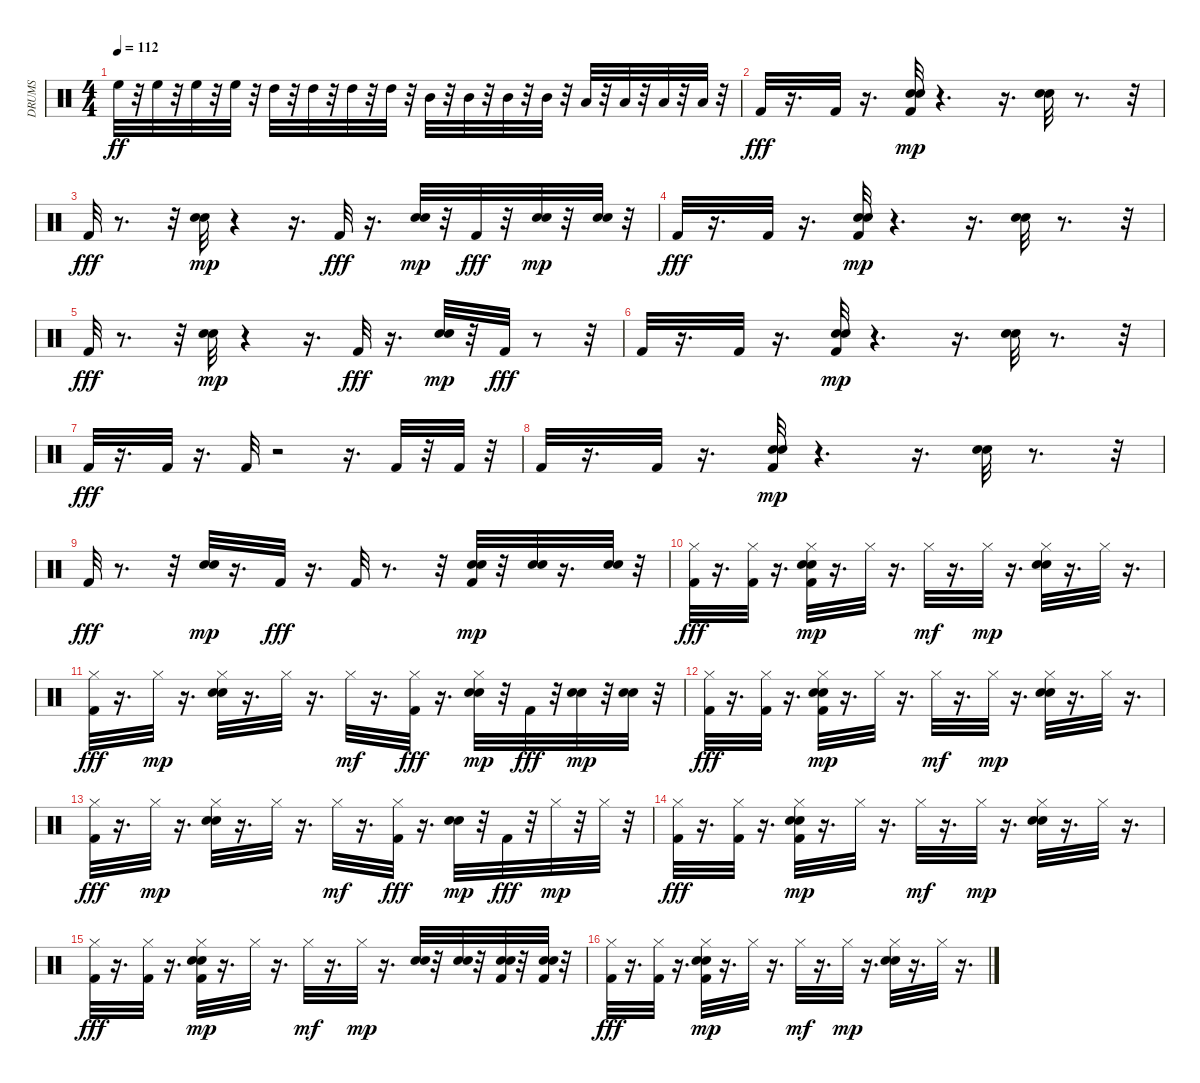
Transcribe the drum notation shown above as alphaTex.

\track ("DRUMS" "DRUMS") {instrument percussion}
\staff {score}
\articulation defaults
\ts (4 4)
\tempo 112
\clef neutral
\ks c "High Floor Tom (hit)".32{dy ff}
r.32 "High Floor Tom (hit)".32 r.32 "High Floor Tom (hit)".32 r.32 "High Floor Tom (hit)".32 r.32 "High Tom (hit)".32 r.32 "High Tom (hit)".32 r.32 "High Tom (hit)".32 r.32 "High Tom (hit)".32 r.32 "Mid Tom (hit)".32 r.32 "Mid Tom (hit)".32 r.32 "Mid Tom (hit)".32 r.32 "Mid Tom (hit)".32 r.32 "Low Tom (hit)".32 r.32 "Low Tom (hit)".32 r.32 "Low Tom (hit)".32 r.32 "Low Tom (hit)".32 r.32 |
"Kick (hit) 2".32{dy fff} r.16{d} "Kick (hit) 2".32 r.16{d} ("Hand Clap (hit)" "Kick (hit) 2" "Electric Snare (hit)").32{dy mp} r.4{d} r.16{d} ("Hand Clap (hit)" "Electric Snare (hit)").32 r.8{d} r.32 |
"Kick (hit) 2".32{dy fff} r.8{d} r.32 ("Hand Clap (hit)" "Electric Snare (hit)").32{dy mp} r.4 r.16{d} "Kick (hit) 2".32{dy fff} r.16{d} ("Hand Clap (hit)" "Electric Snare (hit)").32{dy mp} r.32 "Kick (hit) 2".32{dy fff} r.32 ("Hand Clap (hit)" "Electric Snare (hit)").32{dy mp} r.32 ("Hand Clap (hit)" "Electric Snare (hit)").32 r.32 |
"Kick (hit) 2".32{dy fff} r.16{d} "Kick (hit) 2".32 r.16{d} ("Hand Clap (hit)" "Kick (hit) 2" "Electric Snare (hit)").32{dy mp} r.4{d} r.16{d} ("Hand Clap (hit)" "Electric Snare (hit)").32 r.8{d} r.32 |
"Kick (hit) 2".32{dy fff} r.8{d} r.32 ("Hand Clap (hit)" "Electric Snare (hit)").32{dy mp} r.4 r.16{d} "Kick (hit) 2".32{dy fff} r.16{d} ("Hand Clap (hit)" "Electric Snare (hit)").32{dy mp} r.32 "Kick (hit) 2".32{dy fff} r.8 r.32 |
"Kick (hit) 2".32 r.16{d} "Kick (hit) 2".32 r.16{d} ("Hand Clap (hit)" "Kick (hit) 2" "Electric Snare (hit)").32{dy mp} r.4{d} r.16{d} ("Hand Clap (hit)" "Electric Snare (hit)").32 r.8{d} r.32 |
"Kick (hit) 2".32{dy fff} r.16{d} "Kick (hit) 2".32 r.16{d} "Kick (hit) 2".32 r.2 r.16{d} "Kick (hit) 2".32 r.32 "Kick (hit) 2".32 r.32 |
"Kick (hit) 2".32 r.16{d} "Kick (hit) 2".32 r.16{d} ("Hand Clap (hit)" "Kick (hit) 2" "Electric Snare (hit)").32{dy mp} r.4{d} r.16{d} ("Hand Clap (hit)" "Electric Snare (hit)").32 r.8{d} r.32 |
"Kick (hit) 2".32{dy fff} r.8{d} r.32 ("Hand Clap (hit)" "Electric Snare (hit)").32{dy mp} r.16{d} "Kick (hit) 2".32{dy fff} r.16{d} "Kick (hit) 2".32 r.8{d} r.32 ("Hand Clap (hit)" "Kick (hit) 2" "Electric Snare (hit)").32{dy mp} r.32 ("Hand Clap (hit)" "Electric Snare (hit)").32 r.16{d} ("Hand Clap (hit)" "Electric Snare (hit)").32 r.32 |
("Hi-Hat (closed)" "Kick (hit) 2").32{dy fff} r.16{d} ("Hi-Hat (closed)" "Kick (hit) 2").32 r.16{d} ("Hand Clap (hit)" "Hi-Hat (closed)" "Kick (hit) 2" "Electric Snare (hit)").32{dy mp} r.16{d} "Hi-Hat (closed)".32 r.16{d} "Hi-Hat (closed)".32{dy mf} r.16{d} "Hi-Hat (closed)".32{dy mp} r.16{d} ("Hand Clap (hit)" "Hi-Hat (closed)" "Electric Snare (hit)").32 r.16{d} "Hi-Hat (closed)".32 r.16{d} |
("Hi-Hat (closed)" "Kick (hit) 2").32{dy fff} r.16{d} "Hi-Hat (closed)".32{dy mp} r.16{d} ("Hand Clap (hit)" "Hi-Hat (closed)" "Electric Snare (hit)").32 r.16{d} "Hi-Hat (closed)".32 r.16{d} "Hi-Hat (closed)".32{dy mf} r.16{d} ("Hi-Hat (closed)" "Kick (hit) 2").32{dy fff} r.16{d} ("Hand Clap (hit)" "Hi-Hat (closed)" "Electric Snare (hit)").32{dy mp} r.32 "Kick (hit) 2".32{dy fff} r.32 ("Hand Clap (hit)" "Electric Snare (hit)").32{dy mp} r.32 ("Hand Clap (hit)" "Electric Snare (hit)").32 r.32 |
("Hi-Hat (closed)" "Kick (hit) 2").32{dy fff} r.16{d} ("Hi-Hat (closed)" "Kick (hit) 2").32 r.16{d} ("Hand Clap (hit)" "Hi-Hat (closed)" "Kick (hit) 2" "Electric Snare (hit)").32{dy mp} r.16{d} "Hi-Hat (closed)".32 r.16{d} "Hi-Hat (closed)".32{dy mf} r.16{d} "Hi-Hat (closed)".32{dy mp} r.16{d} ("Hand Clap (hit)" "Hi-Hat (closed)" "Electric Snare (hit)").32 r.16{d} "Hi-Hat (closed)".32 r.16{d} |
("Hi-Hat (closed)" "Kick (hit) 2").32{dy fff} r.16{d} "Hi-Hat (closed)".32{dy mp} r.16{d} ("Hand Clap (hit)" "Hi-Hat (closed)" "Electric Snare (hit)").32 r.16{d} "Hi-Hat (closed)".32 r.16{d} "Hi-Hat (closed)".32{dy mf} r.16{d} ("Hi-Hat (closed)" "Kick (hit) 2").32{dy fff} r.16{d} ("Hand Clap (hit)" "Electric Snare (hit)").32{dy mp} r.32 "Kick (hit) 2".32{dy fff} r.32 "Hi-Hat (closed)".32{dy mp} r.32 "Hi-Hat (closed)".32 r.32 |
("Hi-Hat (closed)" "Kick (hit) 2").32{dy fff} r.16{d} ("Hi-Hat (closed)" "Kick (hit) 2").32 r.16{d} ("Hand Clap (hit)" "Hi-Hat (closed)" "Kick (hit) 2" "Electric Snare (hit)").32{dy mp} r.16{d} "Hi-Hat (closed)".32 r.16{d} "Hi-Hat (closed)".32{dy mf} r.16{d} "Hi-Hat (closed)".32{dy mp} r.16{d} ("Hand Clap (hit)" "Hi-Hat (closed)" "Electric Snare (hit)").32 r.16{d} "Hi-Hat (closed)".32 r.16{d} |
("Hi-Hat (closed)" "Kick (hit) 2").32{dy fff} r.16{d} ("Hi-Hat (closed)" "Kick (hit) 2").32 r.16{d} ("Hand Clap (hit)" "Hi-Hat (closed)" "Kick (hit) 2" "Electric Snare (hit)").32{dy mp} r.16{d} "Hi-Hat (closed)".32 r.16{d} "Hi-Hat (closed)".32{dy mf} r.16{d} "Hi-Hat (closed)".32{dy mp} r.16{d} ("Hand Clap (hit)" "Electric Snare (hit)").32 r.32 ("Hand Clap (hit)" "Electric Snare (hit)").32 r.32 ("Hand Clap (hit)" "Kick (hit) 2" "Electric Snare (hit)").32 r.32 ("Hand Clap (hit)" "Kick (hit) 2" "Electric Snare (hit)").32 r.32 |
("Hi-Hat (closed)" "Kick (hit) 2").32{dy fff} r.16{d} ("Hi-Hat (closed)" "Kick (hit) 2").32 r.16{d} ("Hand Clap (hit)" "Hi-Hat (closed)" "Kick (hit) 2" "Electric Snare (hit)").32{dy mp} r.16{d} "Hi-Hat (closed)".32 r.16{d} "Hi-Hat (closed)".32{dy mf} r.16{d} "Hi-Hat (closed)".32{dy mp} r.16{d} ("Hand Clap (hit)" "Hi-Hat (closed)" "Electric Snare (hit)").32 r.16{d} "Hi-Hat (closed)".32 r.16{d}
